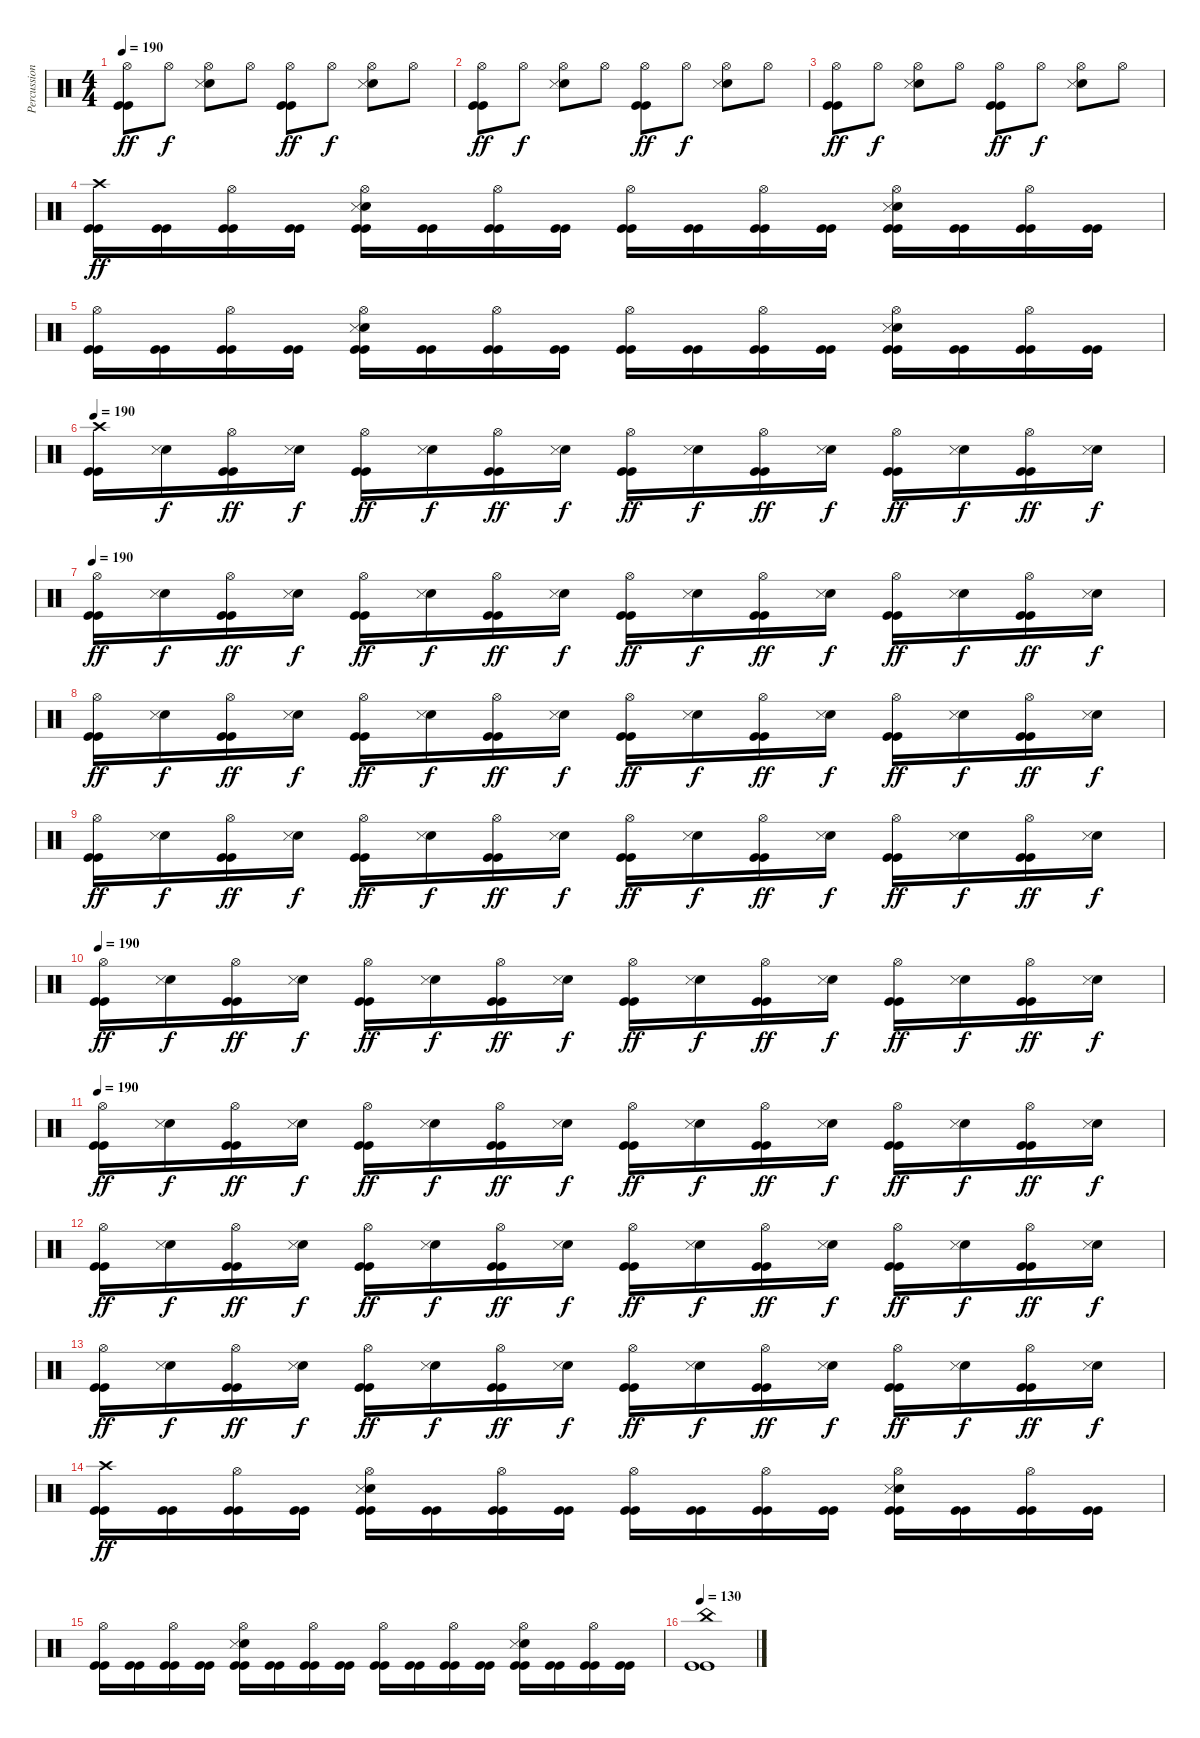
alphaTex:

\track ("Percussion" "Percussion") {instrument percussion}
\staff {score}
\articulation defaults
\ts (4 4)
\tempo 190
\clef neutral
\ks c
("Hi-Hat (open)" "Kick (hit)" "Kick (hit)").8{dy ff} "Hi-Hat (open)".8{dy f} ("Hi-Hat (open)" "Electric Snare (hit)" "Snare (side stick) 3").8 "Hi-Hat (open)".8 ("Hi-Hat (open)" "Kick (hit)" "Kick (hit)").8{dy ff} "Hi-Hat (open)".8{dy f} ("Hi-Hat (open)" "Electric Snare (hit)" "Snare (side stick) 3").8 "Hi-Hat (open)".8 |
("Hi-Hat (open)" "Kick (hit)" "Kick (hit)").8{dy ff} "Hi-Hat (open)".8{dy f} ("Hi-Hat (open)" "Electric Snare (hit)" "Snare (side stick) 3").8 "Hi-Hat (open)".8 ("Hi-Hat (open)" "Kick (hit)" "Kick (hit)").8{dy ff} "Hi-Hat (open)".8{dy f} ("Hi-Hat (open)" "Electric Snare (hit)" "Snare (side stick) 3").8 "Hi-Hat (open)".8 |
("Hi-Hat (open)" "Kick (hit)" "Kick (hit)").8{dy ff} "Hi-Hat (open)".8{dy f} ("Hi-Hat (open)" "Electric Snare (hit)" "Snare (side stick) 3").8 "Hi-Hat (open)".8 ("Hi-Hat (open)" "Kick (hit)" "Kick (hit)").8{dy ff} "Hi-Hat (open)".8{dy f} ("Hi-Hat (open)" "Electric Snare (hit)" "Snare (side stick) 3").8 "Hi-Hat (open)".8 |
("Crash high (hit)" "Kick (hit)" "Kick (hit)").16{dy ff} ("Kick (hit)" "Kick (hit)").16 ("Hi-Hat (open)" "Kick (hit)" "Kick (hit)").16 ("Kick (hit)" "Kick (hit)").16 ("Electric Snare (hit)" "Snare (side stick) 3" "Hi-Hat (open)" "Kick (hit)" "Kick (hit)").16 ("Kick (hit)" "Kick (hit)").16 ("Hi-Hat (open)" "Kick (hit)" "Kick (hit)").16 ("Kick (hit)" "Kick (hit)").16 ("Hi-Hat (open)" "Kick (hit)" "Kick (hit)").16 ("Kick (hit)" "Kick (hit)").16 ("Hi-Hat (open)" "Kick (hit)" "Kick (hit)").16 ("Kick (hit)" "Kick (hit)").16 ("Electric Snare (hit)" "Snare (side stick) 3" "Hi-Hat (open)" "Kick (hit)" "Kick (hit)").16 ("Kick (hit)" "Kick (hit)").16 ("Hi-Hat (open)" "Kick (hit)" "Kick (hit)").16 ("Kick (hit)" "Kick (hit)").16 |
("Hi-Hat (open)" "Kick (hit)" "Kick (hit)").16 ("Kick (hit)" "Kick (hit)").16 ("Hi-Hat (open)" "Kick (hit)" "Kick (hit)").16 ("Kick (hit)" "Kick (hit)").16 ("Electric Snare (hit)" "Snare (side stick) 3" "Hi-Hat (open)" "Kick (hit)" "Kick (hit)").16 ("Kick (hit)" "Kick (hit)").16 ("Hi-Hat (open)" "Kick (hit)" "Kick (hit)").16 ("Kick (hit)" "Kick (hit)").16 ("Hi-Hat (open)" "Kick (hit)" "Kick (hit)").16 ("Kick (hit)" "Kick (hit)").16 ("Hi-Hat (open)" "Kick (hit)" "Kick (hit)").16 ("Kick (hit)" "Kick (hit)").16 ("Electric Snare (hit)" "Snare (side stick) 3" "Hi-Hat (open)" "Kick (hit)" "Kick (hit)").16 ("Kick (hit)" "Kick (hit)").16 ("Hi-Hat (open)" "Kick (hit)" "Kick (hit)").16 ("Kick (hit)" "Kick (hit)").16 |
\tempo 190
("Crash high (hit)" "Kick (hit)" "Kick (hit)").16 ("Electric Snare (hit)" "Snare (side stick) 3").16{dy f} ("Hi-Hat (open)" "Kick (hit)" "Kick (hit)").16{dy ff} ("Electric Snare (hit)" "Snare (side stick) 3").16{dy f} ("Hi-Hat (open)" "Kick (hit)" "Kick (hit)").16{dy ff} ("Electric Snare (hit)" "Snare (side stick) 3").16{dy f} ("Hi-Hat (open)" "Kick (hit)" "Kick (hit)").16{dy ff} ("Electric Snare (hit)" "Snare (side stick) 3").16{dy f} ("Hi-Hat (open)" "Kick (hit)" "Kick (hit)").16{dy ff} ("Electric Snare (hit)" "Snare (side stick) 3").16{dy f} ("Hi-Hat (open)" "Kick (hit)" "Kick (hit)").16{dy ff} ("Electric Snare (hit)" "Snare (side stick) 3").16{dy f} ("Hi-Hat (open)" "Kick (hit)" "Kick (hit)").16{dy ff} ("Electric Snare (hit)" "Snare (side stick) 3").16{dy f} ("Hi-Hat (open)" "Kick (hit)" "Kick (hit)").16{dy ff} ("Electric Snare (hit)" "Snare (side stick) 3").16{dy f} |
\tempo 190
("Hi-Hat (open)" "Kick (hit)" "Kick (hit)").16{dy ff} ("Electric Snare (hit)" "Snare (side stick) 3").16{dy f} ("Hi-Hat (open)" "Kick (hit)" "Kick (hit)").16{dy ff} ("Electric Snare (hit)" "Snare (side stick) 3").16{dy f} ("Hi-Hat (open)" "Kick (hit)" "Kick (hit)").16{dy ff} ("Electric Snare (hit)" "Snare (side stick) 3").16{dy f} ("Hi-Hat (open)" "Kick (hit)" "Kick (hit)").16{dy ff} ("Electric Snare (hit)" "Snare (side stick) 3").16{dy f} ("Hi-Hat (open)" "Kick (hit)" "Kick (hit)").16{dy ff} ("Electric Snare (hit)" "Snare (side stick) 3").16{dy f} ("Hi-Hat (open)" "Kick (hit)" "Kick (hit)").16{dy ff} ("Electric Snare (hit)" "Snare (side stick) 3").16{dy f} ("Hi-Hat (open)" "Kick (hit)" "Kick (hit)").16{dy ff} ("Electric Snare (hit)" "Snare (side stick) 3").16{dy f} ("Hi-Hat (open)" "Kick (hit)" "Kick (hit)").16{dy ff} ("Electric Snare (hit)" "Snare (side stick) 3").16{dy f} |
("Hi-Hat (open)" "Kick (hit)" "Kick (hit)").16{dy ff} ("Electric Snare (hit)" "Snare (side stick) 3").16{dy f} ("Hi-Hat (open)" "Kick (hit)" "Kick (hit)").16{dy ff} ("Electric Snare (hit)" "Snare (side stick) 3").16{dy f} ("Hi-Hat (open)" "Kick (hit)" "Kick (hit)").16{dy ff} ("Electric Snare (hit)" "Snare (side stick) 3").16{dy f} ("Hi-Hat (open)" "Kick (hit)" "Kick (hit)").16{dy ff} ("Electric Snare (hit)" "Snare (side stick) 3").16{dy f} ("Hi-Hat (open)" "Kick (hit)" "Kick (hit)").16{dy ff} ("Electric Snare (hit)" "Snare (side stick) 3").16{dy f} ("Hi-Hat (open)" "Kick (hit)" "Kick (hit)").16{dy ff} ("Electric Snare (hit)" "Snare (side stick) 3").16{dy f} ("Hi-Hat (open)" "Kick (hit)" "Kick (hit)").16{dy ff} ("Electric Snare (hit)" "Snare (side stick) 3").16{dy f} ("Hi-Hat (open)" "Kick (hit)" "Kick (hit)").16{dy ff} ("Electric Snare (hit)" "Snare (side stick) 3").16{dy f} |
("Hi-Hat (open)" "Kick (hit)" "Kick (hit)").16{dy ff} ("Electric Snare (hit)" "Snare (side stick) 3").16{dy f} ("Hi-Hat (open)" "Kick (hit)" "Kick (hit)").16{dy ff} ("Electric Snare (hit)" "Snare (side stick) 3").16{dy f} ("Hi-Hat (open)" "Kick (hit)" "Kick (hit)").16{dy ff} ("Electric Snare (hit)" "Snare (side stick) 3").16{dy f} ("Hi-Hat (open)" "Kick (hit)" "Kick (hit)").16{dy ff} ("Electric Snare (hit)" "Snare (side stick) 3").16{dy f} ("Hi-Hat (open)" "Kick (hit)" "Kick (hit)").16{dy ff} ("Electric Snare (hit)" "Snare (side stick) 3").16{dy f} ("Hi-Hat (open)" "Kick (hit)" "Kick (hit)").16{dy ff} ("Electric Snare (hit)" "Snare (side stick) 3").16{dy f} ("Hi-Hat (open)" "Kick (hit)" "Kick (hit)").16{dy ff} ("Electric Snare (hit)" "Snare (side stick) 3").16{dy f} ("Hi-Hat (open)" "Kick (hit)" "Kick (hit)").16{dy ff} ("Electric Snare (hit)" "Snare (side stick) 3").16{dy f} |
\tempo 190
("Hi-Hat (open)" "Kick (hit)" "Kick (hit)").16{dy ff} ("Electric Snare (hit)" "Snare (side stick) 3").16{dy f} ("Hi-Hat (open)" "Kick (hit)" "Kick (hit)").16{dy ff} ("Electric Snare (hit)" "Snare (side stick) 3").16{dy f} ("Hi-Hat (open)" "Kick (hit)" "Kick (hit)").16{dy ff} ("Electric Snare (hit)" "Snare (side stick) 3").16{dy f} ("Hi-Hat (open)" "Kick (hit)" "Kick (hit)").16{dy ff} ("Electric Snare (hit)" "Snare (side stick) 3").16{dy f} ("Hi-Hat (open)" "Kick (hit)" "Kick (hit)").16{dy ff} ("Electric Snare (hit)" "Snare (side stick) 3").16{dy f} ("Hi-Hat (open)" "Kick (hit)" "Kick (hit)").16{dy ff} ("Electric Snare (hit)" "Snare (side stick) 3").16{dy f} ("Hi-Hat (open)" "Kick (hit)" "Kick (hit)").16{dy ff} ("Electric Snare (hit)" "Snare (side stick) 3").16{dy f} ("Hi-Hat (open)" "Kick (hit)" "Kick (hit)").16{dy ff} ("Electric Snare (hit)" "Snare (side stick) 3").16{dy f} |
\tempo 190
("Hi-Hat (open)" "Kick (hit)" "Kick (hit)").16{dy ff} ("Electric Snare (hit)" "Snare (side stick) 3").16{dy f} ("Hi-Hat (open)" "Kick (hit)" "Kick (hit)").16{dy ff} ("Electric Snare (hit)" "Snare (side stick) 3").16{dy f} ("Hi-Hat (open)" "Kick (hit)" "Kick (hit)").16{dy ff} ("Electric Snare (hit)" "Snare (side stick) 3").16{dy f} ("Hi-Hat (open)" "Kick (hit)" "Kick (hit)").16{dy ff} ("Electric Snare (hit)" "Snare (side stick) 3").16{dy f} ("Hi-Hat (open)" "Kick (hit)" "Kick (hit)").16{dy ff} ("Electric Snare (hit)" "Snare (side stick) 3").16{dy f} ("Hi-Hat (open)" "Kick (hit)" "Kick (hit)").16{dy ff} ("Electric Snare (hit)" "Snare (side stick) 3").16{dy f} ("Hi-Hat (open)" "Kick (hit)" "Kick (hit)").16{dy ff} ("Electric Snare (hit)" "Snare (side stick) 3").16{dy f} ("Hi-Hat (open)" "Kick (hit)" "Kick (hit)").16{dy ff} ("Electric Snare (hit)" "Snare (side stick) 3").16{dy f} |
("Hi-Hat (open)" "Kick (hit)" "Kick (hit)").16{dy ff} ("Electric Snare (hit)" "Snare (side stick) 3").16{dy f} ("Hi-Hat (open)" "Kick (hit)" "Kick (hit)").16{dy ff} ("Electric Snare (hit)" "Snare (side stick) 3").16{dy f} ("Hi-Hat (open)" "Kick (hit)" "Kick (hit)").16{dy ff} ("Electric Snare (hit)" "Snare (side stick) 3").16{dy f} ("Hi-Hat (open)" "Kick (hit)" "Kick (hit)").16{dy ff} ("Electric Snare (hit)" "Snare (side stick) 3").16{dy f} ("Hi-Hat (open)" "Kick (hit)" "Kick (hit)").16{dy ff} ("Electric Snare (hit)" "Snare (side stick) 3").16{dy f} ("Hi-Hat (open)" "Kick (hit)" "Kick (hit)").16{dy ff} ("Electric Snare (hit)" "Snare (side stick) 3").16{dy f} ("Hi-Hat (open)" "Kick (hit)" "Kick (hit)").16{dy ff} ("Electric Snare (hit)" "Snare (side stick) 3").16{dy f} ("Hi-Hat (open)" "Kick (hit)" "Kick (hit)").16{dy ff} ("Electric Snare (hit)" "Snare (side stick) 3").16{dy f} |
("Hi-Hat (open)" "Kick (hit)" "Kick (hit)").16{dy ff} ("Electric Snare (hit)" "Snare (side stick) 3").16{dy f} ("Hi-Hat (open)" "Kick (hit)" "Kick (hit)").16{dy ff} ("Electric Snare (hit)" "Snare (side stick) 3").16{dy f} ("Hi-Hat (open)" "Kick (hit)" "Kick (hit)").16{dy ff} ("Electric Snare (hit)" "Snare (side stick) 3").16{dy f} ("Hi-Hat (open)" "Kick (hit)" "Kick (hit)").16{dy ff} ("Electric Snare (hit)" "Snare (side stick) 3").16{dy f} ("Hi-Hat (open)" "Kick (hit)" "Kick (hit)").16{dy ff} ("Electric Snare (hit)" "Snare (side stick) 3").16{dy f} ("Hi-Hat (open)" "Kick (hit)" "Kick (hit)").16{dy ff} ("Electric Snare (hit)" "Snare (side stick) 3").16{dy f} ("Hi-Hat (open)" "Kick (hit)" "Kick (hit)").16{dy ff} ("Electric Snare (hit)" "Snare (side stick) 3").16{dy f} ("Hi-Hat (open)" "Kick (hit)" "Kick (hit)").16{dy ff} ("Electric Snare (hit)" "Snare (side stick) 3").16{dy f} |
("Crash high (hit)" "Kick (hit)" "Kick (hit)").16{dy ff} ("Kick (hit)" "Kick (hit)").16 ("Hi-Hat (open)" "Kick (hit)" "Kick (hit)").16 ("Kick (hit)" "Kick (hit)").16 ("Electric Snare (hit)" "Snare (side stick) 3" "Hi-Hat (open)" "Kick (hit)" "Kick (hit)").16 ("Kick (hit)" "Kick (hit)").16 ("Hi-Hat (open)" "Kick (hit)" "Kick (hit)").16 ("Kick (hit)" "Kick (hit)").16 ("Hi-Hat (open)" "Kick (hit)" "Kick (hit)").16 ("Kick (hit)" "Kick (hit)").16 ("Hi-Hat (open)" "Kick (hit)" "Kick (hit)").16 ("Kick (hit)" "Kick (hit)").16 ("Electric Snare (hit)" "Snare (side stick) 3" "Hi-Hat (open)" "Kick (hit)" "Kick (hit)").16 ("Kick (hit)" "Kick (hit)").16 ("Hi-Hat (open)" "Kick (hit)" "Kick (hit)").16 ("Kick (hit)" "Kick (hit)").16 |
("Hi-Hat (open)" "Kick (hit)" "Kick (hit)").16 ("Kick (hit)" "Kick (hit)").16 ("Hi-Hat (open)" "Kick (hit)" "Kick (hit)").16 ("Kick (hit)" "Kick (hit)").16 ("Electric Snare (hit)" "Snare (side stick) 3" "Hi-Hat (open)" "Kick (hit)" "Kick (hit)").16 ("Kick (hit)" "Kick (hit)").16 ("Hi-Hat (open)" "Kick (hit)" "Kick (hit)").16 ("Kick (hit)" "Kick (hit)").16 ("Hi-Hat (open)" "Kick (hit)" "Kick (hit)").16 ("Kick (hit)" "Kick (hit)").16 ("Hi-Hat (open)" "Kick (hit)" "Kick (hit)").16 ("Kick (hit)" "Kick (hit)").16 ("Electric Snare (hit)" "Snare (side stick) 3" "Hi-Hat (open)" "Kick (hit)" "Kick (hit)").16 ("Kick (hit)" "Kick (hit)").16 ("Hi-Hat (open)" "Kick (hit)" "Kick (hit)").16 ("Kick (hit)" "Kick (hit)").16 |
\tempo 130
("China (hit)" "Kick (hit)" "Kick (hit)").1
